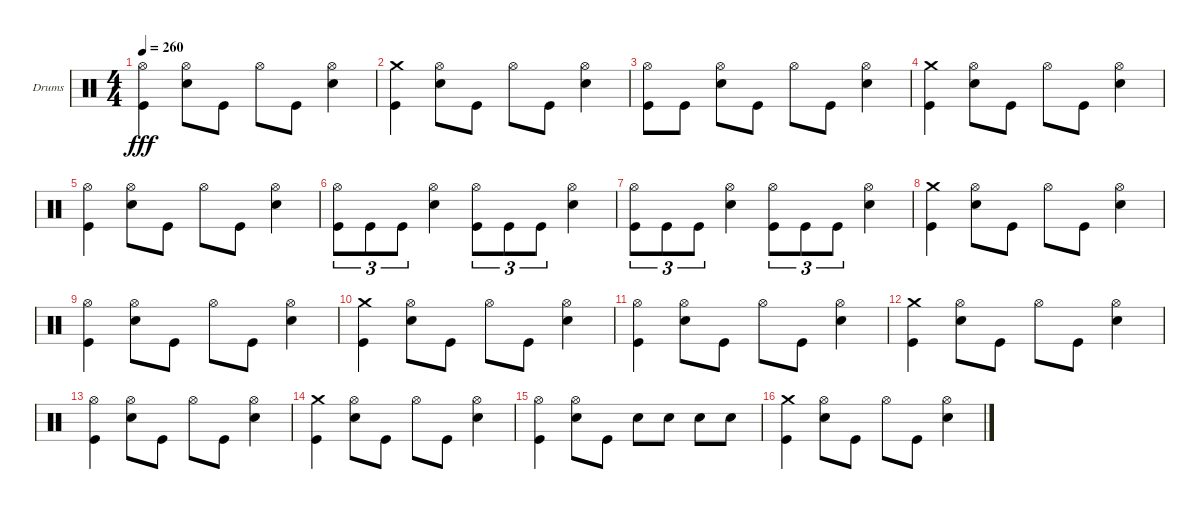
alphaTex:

\defaultSystemsLayout 4
\bracketExtendMode groupsimilarinstruments
\firstSystemTrackNameOrientation horizontal
\otherSystemsTrackNameOrientation horizontal
\track ("Stefan Schwarzmann" "Drums") {instrument percussion}
\staff {score}
\articulation defaults
\ts (4 4)
\tempo 260
\clef neutral
\ks c
("Kick (hit)" "Hi-Hat (open)").4{dy fff} ("Snare (hit) 2" "Hi-Hat (open)").8 "Kick (hit)".8 "Hi-Hat (open)".8 "Kick (hit)".8 ("Snare (hit) 2" "Hi-Hat (open)").4 |
("Kick (hit)" "Crash medium (hit)").4 ("Snare (hit) 2" "Hi-Hat (open)").8 "Kick (hit)".8 "Hi-Hat (open)".8 "Kick (hit)".8 ("Snare (hit) 2" "Hi-Hat (open)").4 |
("Kick (hit)" "Hi-Hat (open)").8 "Kick (hit)".8 ("Snare (hit) 2" "Hi-Hat (open)").8 "Kick (hit)".8 "Hi-Hat (open)".8 "Kick (hit)".8 ("Snare (hit) 2" "Hi-Hat (open)").4 |
("Kick (hit)" "Crash medium (hit)").4 ("Snare (hit) 2" "Hi-Hat (open)").8 "Kick (hit)".8 "Hi-Hat (open)".8 "Kick (hit)".8 ("Snare (hit) 2" "Hi-Hat (open)").4 |
("Kick (hit)" "Hi-Hat (open)").4 ("Snare (hit) 2" "Hi-Hat (open)").8 "Kick (hit)".8 "Hi-Hat (open)".8 "Kick (hit)".8 ("Snare (hit) 2" "Hi-Hat (open)").4 |
("Kick (hit)" "Hi-Hat (open)").8{tu (3 2)} "Kick (hit)".8{tu (3 2)} "Kick (hit)".8{tu (3 2)} ("Snare (hit) 2" "Hi-Hat (open)").4 ("Kick (hit)" "Hi-Hat (open)").8{tu (3 2)} "Kick (hit)".8{tu (3 2)} "Kick (hit)".8{tu (3 2)} ("Snare (hit) 2" "Hi-Hat (open)").4 |
("Kick (hit)" "Hi-Hat (open)").8{tu (3 2)} "Kick (hit)".8{tu (3 2)} "Kick (hit)".8{tu (3 2)} ("Snare (hit) 2" "Hi-Hat (open)").4 ("Kick (hit)" "Hi-Hat (open)").8{tu (3 2)} "Kick (hit)".8{tu (3 2)} "Kick (hit)".8{tu (3 2)} ("Snare (hit) 2" "Hi-Hat (open)").4 |
("Kick (hit)" "Crash medium (hit)").4 ("Snare (hit) 2" "Hi-Hat (open)").8 "Kick (hit)".8 "Hi-Hat (open)".8 "Kick (hit)".8 ("Snare (hit) 2" "Hi-Hat (open)").4 |
("Kick (hit)" "Hi-Hat (open)").4 ("Snare (hit) 2" "Hi-Hat (open)").8 "Kick (hit)".8 "Hi-Hat (open)".8 "Kick (hit)".8 ("Snare (hit) 2" "Hi-Hat (open)").4 |
("Kick (hit)" "Crash medium (hit)").4 ("Snare (hit) 2" "Hi-Hat (open)").8 "Kick (hit)".8 "Hi-Hat (open)".8 "Kick (hit)".8 ("Snare (hit) 2" "Hi-Hat (open)").4 |
("Kick (hit)" "Hi-Hat (open)").4 ("Snare (hit) 2" "Hi-Hat (open)").8 "Kick (hit)".8 "Hi-Hat (open)".8 "Kick (hit)".8 ("Snare (hit) 2" "Hi-Hat (open)").4 |
("Kick (hit)" "Crash medium (hit)").4 ("Snare (hit) 2" "Hi-Hat (open)").8 "Kick (hit)".8 "Hi-Hat (open)".8 "Kick (hit)".8 ("Snare (hit) 2" "Hi-Hat (open)").4 |
("Kick (hit)" "Hi-Hat (open)").4 ("Snare (hit) 2" "Hi-Hat (open)").8 "Kick (hit)".8 "Hi-Hat (open)".8 "Kick (hit)".8 ("Snare (hit) 2" "Hi-Hat (open)").4 |
("Kick (hit)" "Crash medium (hit)").4 ("Snare (hit) 2" "Hi-Hat (open)").8 "Kick (hit)".8 "Hi-Hat (open)".8 "Kick (hit)".8 ("Snare (hit) 2" "Hi-Hat (open)").4 |
("Kick (hit)" "Hi-Hat (open)").4 ("Snare (hit) 2" "Hi-Hat (open)").8 "Kick (hit)".8 "Snare (hit) 2".8 "Snare (hit) 2".8 "Snare (hit) 2".8 "Snare (hit) 2".8 |
("Kick (hit)" "Crash medium (hit)").4 ("Snare (hit) 2" "Hi-Hat (open)").8 "Kick (hit)".8 "Hi-Hat (open)".8 "Kick (hit)".8 ("Snare (hit) 2" "Hi-Hat (open)").4
